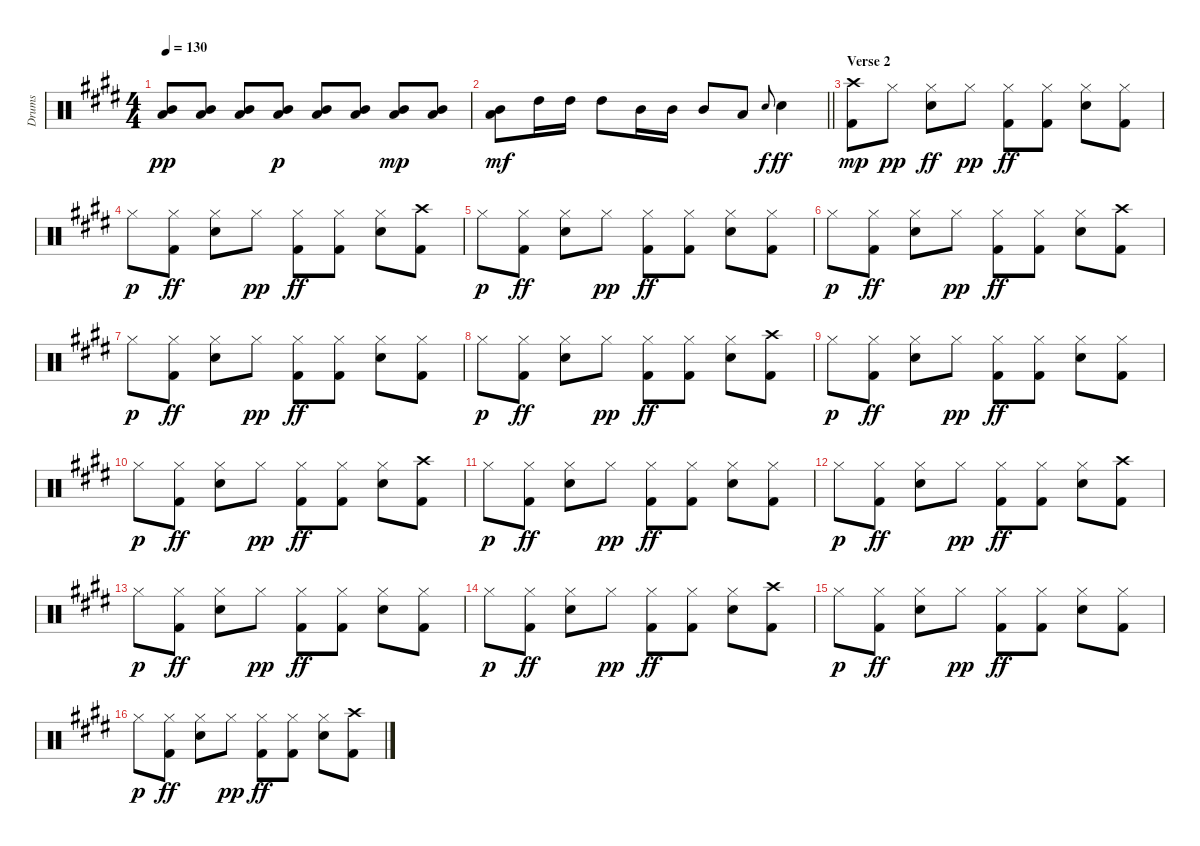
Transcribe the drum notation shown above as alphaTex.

\track ("Drums" "Drums") {instrument percussion}
\staff {score}
\articulation defaults
\ts (4 4)
\tempo 130
\clef neutral
\ks e
("Mid Tom (hit)" "Low Tom (hit)").8{dy pp} ("Low Tom (hit)" "Mid Tom (hit)").8 ("Low Tom (hit)" "Mid Tom (hit)").8 ("Low Tom (hit)" "Mid Tom (hit)").8{dy p} ("Low Tom (hit)" "Mid Tom (hit)").8 ("Low Tom (hit)" "Mid Tom (hit)").8 ("Low Tom (hit)" "Mid Tom (hit)").8{dy mp} ("Low Tom (hit)" "Mid Tom (hit)").8 |
\barLineRight lightlight
\ks c#minor
("Low Tom (hit)" "Mid Tom (hit)").8{dy mf} "High Tom (hit)".16 "High Tom (hit)".16 "High Tom (hit)".8 "Mid Tom (hit)".16 "Mid Tom (hit)".16 "Mid Tom (hit)".8 "Low Tom (hit)".8 "Electric Snare (hit)".8{gr onbeat dy f} "Electric Snare (hit)".4{dy ff} |
\section ("" "Verse 2")
\ks e
("Crash high (hit)" "Kick (hit) 2").8{dy mp} "Hi-Hat (closed)".8{dy pp} ("Hi-Hat (closed)" "Electric Snare (hit)").8{dy ff} "Hi-Hat (closed)".8{dy pp} ("Hi-Hat (closed)" "Kick (hit) 2").8{dy ff} ("Hi-Hat (closed)" "Kick (hit) 2").8 ("Hi-Hat (closed)" "Electric Snare (hit)").8 ("Hi-Hat (closed)" "Kick (hit) 2").8 |
\ks c#minor "Hi-Hat (closed)".8{dy p}
("Hi-Hat (closed)" "Kick (hit) 2").8{dy ff} ("Hi-Hat (closed)" "Electric Snare (hit)").8 "Hi-Hat (closed)".8{dy pp} ("Hi-Hat (closed)" "Kick (hit) 2").8{dy ff} ("Hi-Hat (closed)" "Kick (hit) 2").8 ("Hi-Hat (closed)" "Electric Snare (hit)").8 ("Crash high (hit)" "Kick (hit) 2").8 |
\ks e "Hi-Hat (closed)".8{dy p}
("Hi-Hat (closed)" "Kick (hit) 2").8{dy ff} ("Hi-Hat (closed)" "Electric Snare (hit)").8 "Hi-Hat (closed)".8{dy pp} ("Hi-Hat (closed)" "Kick (hit) 2").8{dy ff} ("Hi-Hat (closed)" "Kick (hit) 2").8 ("Hi-Hat (closed)" "Electric Snare (hit)").8 ("Hi-Hat (closed)" "Kick (hit) 2").8 |
\ks c#minor "Hi-Hat (closed)".8{dy p}
("Hi-Hat (closed)" "Kick (hit) 2").8{dy ff} ("Hi-Hat (closed)" "Electric Snare (hit)").8 "Hi-Hat (closed)".8{dy pp} ("Hi-Hat (closed)" "Kick (hit) 2").8{dy ff} ("Hi-Hat (closed)" "Kick (hit) 2").8 ("Hi-Hat (closed)" "Electric Snare (hit)").8 ("Crash high (hit)" "Kick (hit) 2").8 |
\ks e "Hi-Hat (closed)".8{dy p}
("Hi-Hat (closed)" "Kick (hit) 2").8{dy ff} ("Hi-Hat (closed)" "Electric Snare (hit)").8 "Hi-Hat (closed)".8{dy pp} ("Hi-Hat (closed)" "Kick (hit) 2").8{dy ff} ("Hi-Hat (closed)" "Kick (hit) 2").8 ("Hi-Hat (closed)" "Electric Snare (hit)").8 ("Hi-Hat (closed)" "Kick (hit) 2").8 |
\ks c#minor "Hi-Hat (closed)".8{dy p}
("Hi-Hat (closed)" "Kick (hit) 2").8{dy ff} ("Hi-Hat (closed)" "Electric Snare (hit)").8 "Hi-Hat (closed)".8{dy pp} ("Hi-Hat (closed)" "Kick (hit) 2").8{dy ff} ("Hi-Hat (closed)" "Kick (hit) 2").8 ("Hi-Hat (closed)" "Electric Snare (hit)").8 ("Crash high (hit)" "Kick (hit) 2").8 |
\ks e "Hi-Hat (closed)".8{dy p}
("Hi-Hat (closed)" "Kick (hit) 2").8{dy ff} ("Hi-Hat (closed)" "Electric Snare (hit)").8 "Hi-Hat (closed)".8{dy pp} ("Hi-Hat (closed)" "Kick (hit) 2").8{dy ff} ("Hi-Hat (closed)" "Kick (hit) 2").8 ("Hi-Hat (closed)" "Electric Snare (hit)").8 ("Hi-Hat (closed)" "Kick (hit) 2").8 |
\ks c#minor "Hi-Hat (closed)".8{dy p}
("Hi-Hat (closed)" "Kick (hit) 2").8{dy ff} ("Hi-Hat (closed)" "Electric Snare (hit)").8 "Hi-Hat (closed)".8{dy pp} ("Hi-Hat (closed)" "Kick (hit) 2").8{dy ff} ("Hi-Hat (closed)" "Kick (hit) 2").8 ("Hi-Hat (closed)" "Electric Snare (hit)").8 ("Crash high (hit)" "Kick (hit) 2").8 |
\ks e "Hi-Hat (closed)".8{dy p}
("Hi-Hat (closed)" "Kick (hit) 2").8{dy ff} ("Hi-Hat (closed)" "Electric Snare (hit)").8 "Hi-Hat (closed)".8{dy pp} ("Hi-Hat (closed)" "Kick (hit) 2").8{dy ff} ("Hi-Hat (closed)" "Kick (hit) 2").8 ("Hi-Hat (closed)" "Electric Snare (hit)").8 ("Hi-Hat (closed)" "Kick (hit) 2").8 |
\ks c#minor "Hi-Hat (closed)".8{dy p}
("Hi-Hat (closed)" "Kick (hit) 2").8{dy ff} ("Hi-Hat (closed)" "Electric Snare (hit)").8 "Hi-Hat (closed)".8{dy pp} ("Hi-Hat (closed)" "Kick (hit) 2").8{dy ff} ("Hi-Hat (closed)" "Kick (hit) 2").8 ("Hi-Hat (closed)" "Electric Snare (hit)").8 ("Crash high (hit)" "Kick (hit) 2").8 |
\ks e "Hi-Hat (closed)".8{dy p}
("Hi-Hat (closed)" "Kick (hit) 2").8{dy ff} ("Hi-Hat (closed)" "Electric Snare (hit)").8 "Hi-Hat (closed)".8{dy pp} ("Hi-Hat (closed)" "Kick (hit) 2").8{dy ff} ("Hi-Hat (closed)" "Kick (hit) 2").8 ("Hi-Hat (closed)" "Electric Snare (hit)").8 ("Hi-Hat (closed)" "Kick (hit) 2").8 |
\ks c#minor "Hi-Hat (closed)".8{dy p}
("Hi-Hat (closed)" "Kick (hit) 2").8{dy ff} ("Hi-Hat (closed)" "Electric Snare (hit)").8 "Hi-Hat (closed)".8{dy pp} ("Hi-Hat (closed)" "Kick (hit) 2").8{dy ff} ("Hi-Hat (closed)" "Kick (hit) 2").8 ("Hi-Hat (closed)" "Electric Snare (hit)").8 ("Crash high (hit)" "Kick (hit) 2").8 |
\ks e "Hi-Hat (closed)".8{dy p}
("Hi-Hat (closed)" "Kick (hit) 2").8{dy ff} ("Hi-Hat (closed)" "Electric Snare (hit)").8 "Hi-Hat (closed)".8{dy pp} ("Hi-Hat (closed)" "Kick (hit) 2").8{dy ff} ("Hi-Hat (closed)" "Kick (hit) 2").8 ("Hi-Hat (closed)" "Electric Snare (hit)").8 ("Hi-Hat (closed)" "Kick (hit) 2").8 |
\ks c#minor "Hi-Hat (closed)".8{dy p}
("Hi-Hat (closed)" "Kick (hit) 2").8{dy ff} ("Hi-Hat (closed)" "Electric Snare (hit)").8 "Hi-Hat (closed)".8{dy pp} ("Hi-Hat (closed)" "Kick (hit) 2").8{dy ff} ("Hi-Hat (closed)" "Kick (hit) 2").8 ("Hi-Hat (closed)" "Electric Snare (hit)").8 ("Crash high (hit)" "Kick (hit) 2").8
